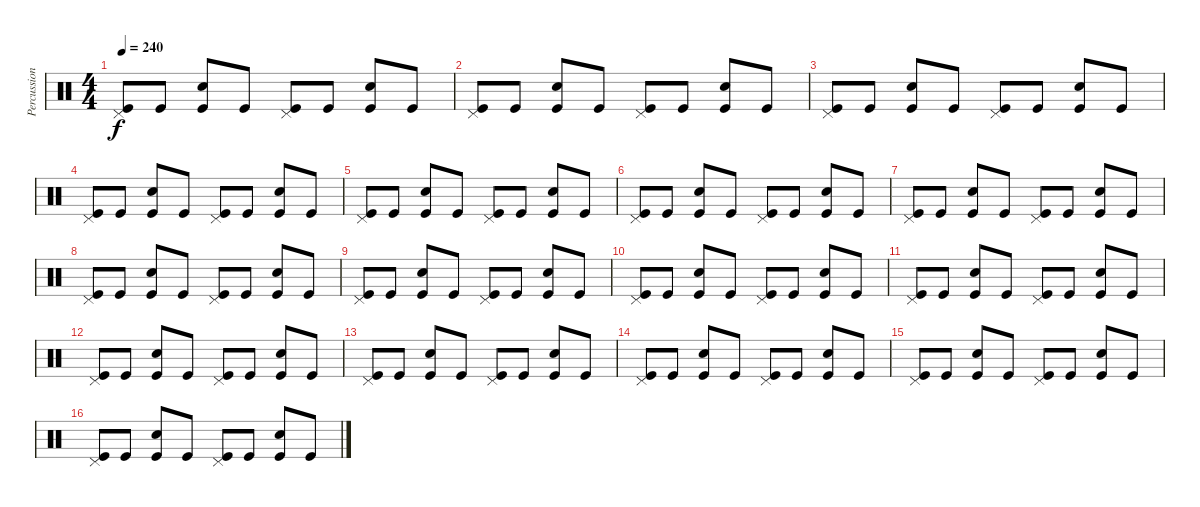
\track ("Percussion" "Percussion") {instrument percussion}
\staff {score}
\articulation defaults
\ts (4 4)
\tempo 240
\clef neutral
\ks c
("Pedal Hi-Hat (hit)" "Kick (hit)").8{dy f} "Kick (hit)".8 ("Snare (hit) 2" "Kick (hit)").8 "Kick (hit)".8 ("Pedal Hi-Hat (hit)" "Kick (hit)").8 "Kick (hit)".8 ("Snare (hit) 2" "Kick (hit)").8 "Kick (hit)".8 |
("Pedal Hi-Hat (hit)" "Kick (hit)").8 "Kick (hit)".8 ("Snare (hit) 2" "Kick (hit)").8 "Kick (hit)".8 ("Pedal Hi-Hat (hit)" "Kick (hit)").8 "Kick (hit)".8 ("Snare (hit) 2" "Kick (hit)").8 "Kick (hit)".8 |
("Pedal Hi-Hat (hit)" "Kick (hit)").8 "Kick (hit)".8 ("Snare (hit) 2" "Kick (hit)").8 "Kick (hit)".8 ("Pedal Hi-Hat (hit)" "Kick (hit)").8 "Kick (hit)".8 ("Snare (hit) 2" "Kick (hit)").8 "Kick (hit)".8 |
("Pedal Hi-Hat (hit)" "Kick (hit)").8 "Kick (hit)".8 ("Snare (hit) 2" "Kick (hit)").8 "Kick (hit)".8 ("Pedal Hi-Hat (hit)" "Kick (hit)").8 "Kick (hit)".8 ("Snare (hit) 2" "Kick (hit)").8 "Kick (hit)".8 |
("Pedal Hi-Hat (hit)" "Kick (hit)").8 "Kick (hit)".8 ("Snare (hit) 2" "Kick (hit)").8 "Kick (hit)".8 ("Pedal Hi-Hat (hit)" "Kick (hit)").8 "Kick (hit)".8 ("Snare (hit) 2" "Kick (hit)").8 "Kick (hit)".8 |
("Pedal Hi-Hat (hit)" "Kick (hit)").8 "Kick (hit)".8 ("Snare (hit) 2" "Kick (hit)").8 "Kick (hit)".8 ("Pedal Hi-Hat (hit)" "Kick (hit)").8 "Kick (hit)".8 ("Snare (hit) 2" "Kick (hit)").8 "Kick (hit)".8 |
("Pedal Hi-Hat (hit)" "Kick (hit)").8 "Kick (hit)".8 ("Snare (hit) 2" "Kick (hit)").8 "Kick (hit)".8 ("Pedal Hi-Hat (hit)" "Kick (hit)").8 "Kick (hit)".8 ("Snare (hit) 2" "Kick (hit)").8 "Kick (hit)".8 |
("Pedal Hi-Hat (hit)" "Kick (hit)").8 "Kick (hit)".8 ("Snare (hit) 2" "Kick (hit)").8 "Kick (hit)".8 ("Pedal Hi-Hat (hit)" "Kick (hit)").8 "Kick (hit)".8 ("Snare (hit) 2" "Kick (hit)").8 "Kick (hit)".8 |
("Pedal Hi-Hat (hit)" "Kick (hit)").8 "Kick (hit)".8 ("Snare (hit) 2" "Kick (hit)").8 "Kick (hit)".8 ("Pedal Hi-Hat (hit)" "Kick (hit)").8 "Kick (hit)".8 ("Snare (hit) 2" "Kick (hit)").8 "Kick (hit)".8 |
("Pedal Hi-Hat (hit)" "Kick (hit)").8 "Kick (hit)".8 ("Snare (hit) 2" "Kick (hit)").8 "Kick (hit)".8 ("Pedal Hi-Hat (hit)" "Kick (hit)").8 "Kick (hit)".8 ("Snare (hit) 2" "Kick (hit)").8 "Kick (hit)".8 |
("Pedal Hi-Hat (hit)" "Kick (hit)").8 "Kick (hit)".8 ("Snare (hit) 2" "Kick (hit)").8 "Kick (hit)".8 ("Pedal Hi-Hat (hit)" "Kick (hit)").8 "Kick (hit)".8 ("Snare (hit) 2" "Kick (hit)").8 "Kick (hit)".8 |
("Pedal Hi-Hat (hit)" "Kick (hit)").8 "Kick (hit)".8 ("Snare (hit) 2" "Kick (hit)").8 "Kick (hit)".8 ("Pedal Hi-Hat (hit)" "Kick (hit)").8 "Kick (hit)".8 ("Snare (hit) 2" "Kick (hit)").8 "Kick (hit)".8 |
("Pedal Hi-Hat (hit)" "Kick (hit)").8 "Kick (hit)".8 ("Snare (hit) 2" "Kick (hit)").8 "Kick (hit)".8 ("Pedal Hi-Hat (hit)" "Kick (hit)").8 "Kick (hit)".8 ("Snare (hit) 2" "Kick (hit)").8 "Kick (hit)".8 |
("Pedal Hi-Hat (hit)" "Kick (hit)").8 "Kick (hit)".8 ("Snare (hit) 2" "Kick (hit)").8 "Kick (hit)".8 ("Pedal Hi-Hat (hit)" "Kick (hit)").8 "Kick (hit)".8 ("Snare (hit) 2" "Kick (hit)").8 "Kick (hit)".8 |
("Pedal Hi-Hat (hit)" "Kick (hit)").8 "Kick (hit)".8 ("Snare (hit) 2" "Kick (hit)").8 "Kick (hit)".8 ("Pedal Hi-Hat (hit)" "Kick (hit)").8 "Kick (hit)".8 ("Snare (hit) 2" "Kick (hit)").8 "Kick (hit)".8 |
("Pedal Hi-Hat (hit)" "Kick (hit)").8 "Kick (hit)".8 ("Snare (hit) 2" "Kick (hit)").8 "Kick (hit)".8 ("Pedal Hi-Hat (hit)" "Kick (hit)").8 "Kick (hit)".8 ("Snare (hit) 2" "Kick (hit)").8 "Kick (hit)".8
